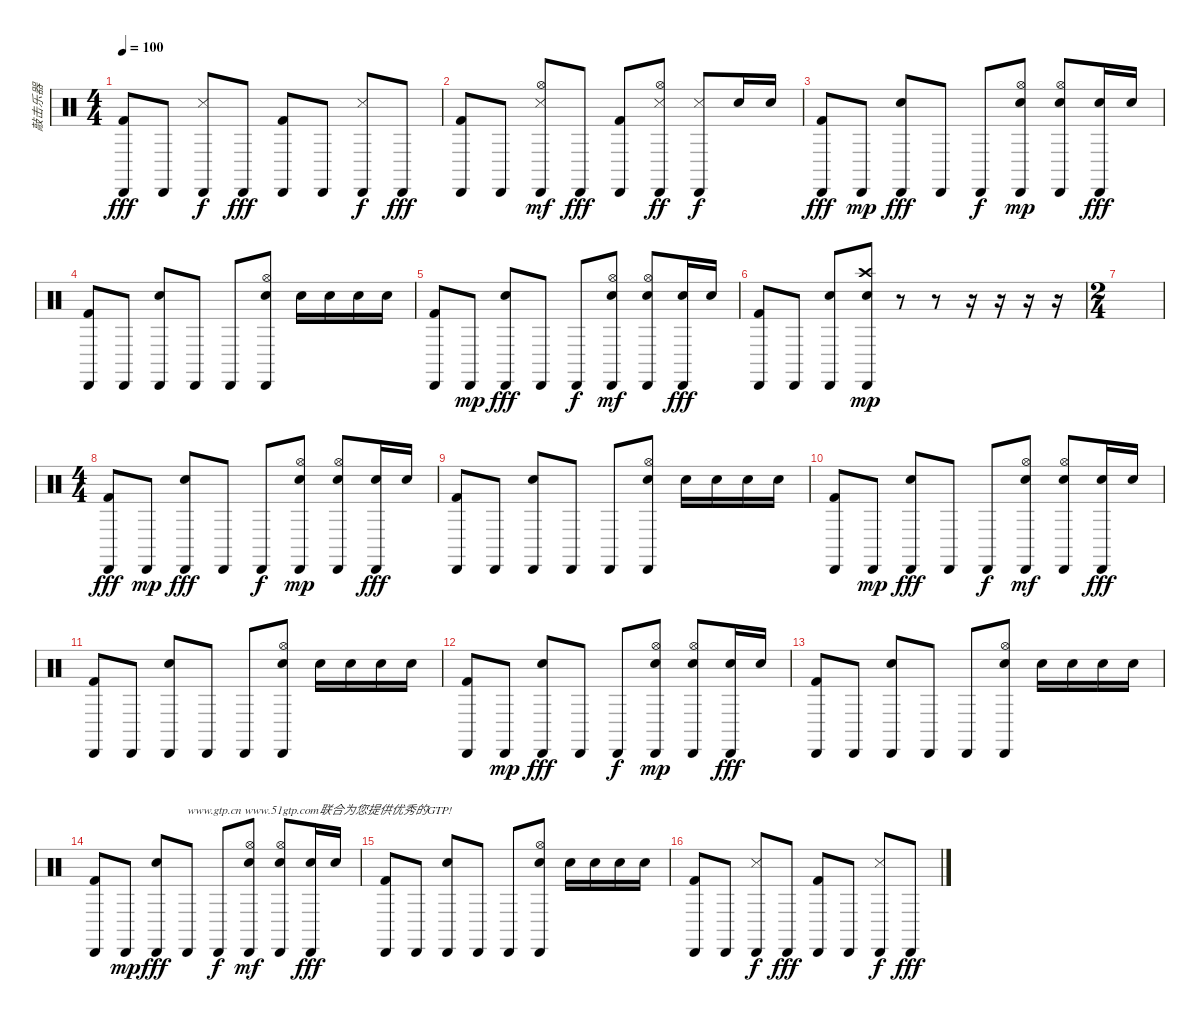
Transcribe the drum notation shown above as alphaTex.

\track ("敲击乐器" "敲击乐器") {instrument percussion}
\staff {score}
\articulation defaults
\ts (4 4)
\tempo 100
\clef neutral
\ks c
("Cabasa (hit)" "Kick (hit) 2").8{dy fff} "Cabasa (hit)".8 ("Cabasa (hit)" "Snare (side stick) 3").8{dy f} "Cabasa (hit)".8{dy fff} ("Cabasa (hit)" "Kick (hit) 2").8 "Cabasa (hit)".8 ("Cabasa (hit)" "Snare (side stick) 3").8{dy f} "Cabasa (hit)".8{dy fff} |
("Cabasa (hit)" "Kick (hit) 2").8 "Cabasa (hit)".8 ("Cabasa (hit)" "Snare (side stick) 3" "Hi-Hat (open)").8{dy mf} "Cabasa (hit)".8{dy fff} ("Cabasa (hit)" "Kick (hit) 2").8 ("Cabasa (hit)" "Snare (side stick) 3" "Hi-Hat (open)").8{dy ff} ("Cabasa (hit)" "Snare (side stick) 3").8{dy f} "Electric Snare (hit)".16 "Snare (hit) 2".16 |
("Kick (hit) 2" "Cabasa (hit)").8{dy fff} "Cabasa (hit)".8{dy mp} ("Cabasa (hit)" "Snare (hit) 2").8{dy fff} "Cabasa (hit)".8 "Cabasa (hit)".8{dy f} ("Cabasa (hit)" "Snare (hit) 2" "Hi-Hat (open)").8{dy mp} ("Cabasa (hit)" "Snare (hit) 2" "Hi-Hat (open)").8 ("Cabasa (hit)" "Snare (hit) 2").16{dy fff} "Snare (hit) 2".16 |
("Kick (hit) 2" "Cabasa (hit)").8 "Cabasa (hit)".8 ("Cabasa (hit)" "Snare (hit) 2").8 "Cabasa (hit)".8 "Cabasa (hit)".8 ("Cabasa (hit)" "Snare (hit) 2" "Hi-Hat (open)").8 "Snare (hit) 2".16 "Snare (hit) 2".16 "Snare (hit) 2".16 "Snare (hit) 2".16 |
("Kick (hit) 2" "Cabasa (hit)").8 "Cabasa (hit)".8{dy mp} ("Cabasa (hit)" "Snare (hit) 2").8{dy fff} "Cabasa (hit)".8 "Cabasa (hit)".8{dy f} ("Cabasa (hit)" "Snare (hit) 2" "Hi-Hat (open)").8{dy mf} ("Cabasa (hit)" "Snare (hit) 2" "Hi-Hat (open)").8 ("Cabasa (hit)" "Snare (hit) 2").16{dy fff} "Snare (hit) 2".16 |
("Kick (hit) 2" "Cabasa (hit)").8 "Cabasa (hit)".8 ("Cabasa (hit)" "Snare (hit) 2").8 ("Cabasa (hit)" "Crash high (hit)" "Snare (hit) 2").8{dy mp} r.8 r.8 r.16 r.16 r.16 r.16 |
\ts (2 4)
|
\ts (4 4)
("Kick (hit) 2" "Cabasa (hit)").8{dy fff} "Cabasa (hit)".8{dy mp} ("Cabasa (hit)" "Snare (hit) 2").8{dy fff} "Cabasa (hit)".8 "Cabasa (hit)".8{dy f} ("Cabasa (hit)" "Snare (hit) 2" "Hi-Hat (open)").8{dy mp} ("Cabasa (hit)" "Snare (hit) 2" "Hi-Hat (open)").8 ("Cabasa (hit)" "Snare (hit) 2").16{dy fff} "Snare (hit) 2".16 |
("Kick (hit) 2" "Cabasa (hit)").8 "Cabasa (hit)".8 ("Cabasa (hit)" "Snare (hit) 2").8 "Cabasa (hit)".8 "Cabasa (hit)".8 ("Cabasa (hit)" "Snare (hit) 2" "Hi-Hat (open)").8 "Snare (hit) 2".16 "Snare (hit) 2".16 "Snare (hit) 2".16 "Snare (hit) 2".16 |
("Kick (hit) 2" "Cabasa (hit)").8 "Cabasa (hit)".8{dy mp} ("Cabasa (hit)" "Snare (hit) 2").8{dy fff} "Cabasa (hit)".8 "Cabasa (hit)".8{dy f} ("Cabasa (hit)" "Snare (hit) 2" "Hi-Hat (open)").8{dy mf} ("Cabasa (hit)" "Snare (hit) 2" "Hi-Hat (open)").8 ("Cabasa (hit)" "Snare (hit) 2").16{dy fff} "Snare (hit) 2".16 |
("Kick (hit) 2" "Cabasa (hit)").8 "Cabasa (hit)".8 ("Cabasa (hit)" "Snare (hit) 2").8 "Cabasa (hit)".8 "Cabasa (hit)".8 ("Cabasa (hit)" "Snare (hit) 2" "Hi-Hat (open)").8 "Snare (hit) 2".16 "Snare (hit) 2".16 "Snare (hit) 2".16 "Snare (hit) 2".16 |
("Kick (hit) 2" "Cabasa (hit)").8 "Cabasa (hit)".8{dy mp} ("Cabasa (hit)" "Snare (hit) 2").8{dy fff} "Cabasa (hit)".8 "Cabasa (hit)".8{dy f} ("Cabasa (hit)" "Snare (hit) 2" "Hi-Hat (open)").8{dy mp} ("Cabasa (hit)" "Snare (hit) 2" "Hi-Hat (open)").8 ("Cabasa (hit)" "Snare (hit) 2").16{dy fff} "Snare (hit) 2".16 |
("Kick (hit) 2" "Cabasa (hit)").8 "Cabasa (hit)".8 ("Cabasa (hit)" "Snare (hit) 2").8 "Cabasa (hit)".8 "Cabasa (hit)".8 ("Cabasa (hit)" "Snare (hit) 2" "Hi-Hat (open)").8 "Snare (hit) 2".16 "Snare (hit) 2".16 "Snare (hit) 2".16 "Snare (hit) 2".16 |
("Kick (hit) 2" "Cabasa (hit)").8 "Cabasa (hit)".8{dy mp} ("Cabasa (hit)" "Snare (hit) 2").8{dy fff} "Cabasa (hit)".8{txt "www.gtp.cn www.51gtp.com联合为您提供优秀的GTP!"} "Cabasa (hit)".8{dy f} ("Cabasa (hit)" "Snare (hit) 2" "Hi-Hat (open)").8{dy mf} ("Cabasa (hit)" "Snare (hit) 2" "Hi-Hat (open)").8 ("Cabasa (hit)" "Snare (hit) 2").16{dy fff} "Snare (hit) 2".16 |
("Kick (hit) 2" "Cabasa (hit)").8 "Cabasa (hit)".8 ("Cabasa (hit)" "Snare (hit) 2").8 "Cabasa (hit)".8 "Cabasa (hit)".8 ("Cabasa (hit)" "Snare (hit) 2" "Hi-Hat (open)").8 "Snare (hit) 2".16 "Snare (hit) 2".16 "Snare (hit) 2".16 "Snare (hit) 2".16 |
("Cabasa (hit)" "Kick (hit) 2").8 "Cabasa (hit)".8 ("Cabasa (hit)" "Snare (side stick) 3").8{dy f} "Cabasa (hit)".8{dy fff} ("Cabasa (hit)" "Kick (hit) 2").8 "Cabasa (hit)".8 ("Cabasa (hit)" "Snare (side stick) 3").8{dy f} "Cabasa (hit)".8{dy fff}
